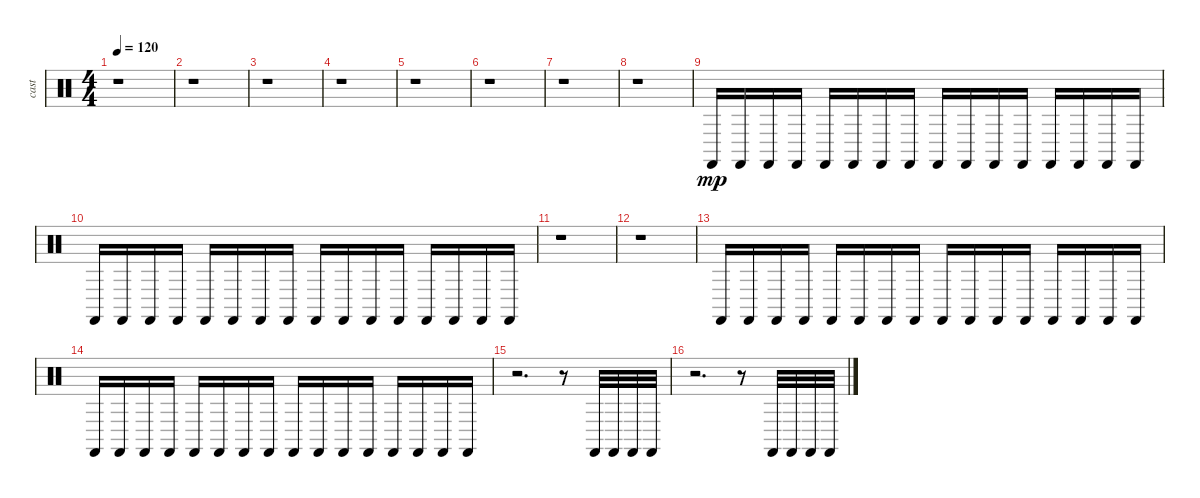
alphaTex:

\track ("cast" "cast") {instrument percussion}
\staff {score}
\articulation defaults
\ts (4 4)
\tempo 120
\clef neutral
\ks c
r.1{dy mp} |
r.1 |
r.1 |
r.1 |
r.1 |
r.1 |
r.1 |
r.1 |
"Castanets (hit)".16 "Castanets (hit)".16 "Castanets (hit)".16 "Castanets (hit)".16 "Castanets (hit)".16 "Castanets (hit)".16 "Castanets (hit)".16 "Castanets (hit)".16 "Castanets (hit)".16 "Castanets (hit)".16 "Castanets (hit)".16 "Castanets (hit)".16 "Castanets (hit)".16 "Castanets (hit)".16 "Castanets (hit)".16 "Castanets (hit)".16 |
"Castanets (hit)".16 "Castanets (hit)".16 "Castanets (hit)".16 "Castanets (hit)".16 "Castanets (hit)".16 "Castanets (hit)".16 "Castanets (hit)".16 "Castanets (hit)".16 "Castanets (hit)".16 "Castanets (hit)".16 "Castanets (hit)".16 "Castanets (hit)".16 "Castanets (hit)".16 "Castanets (hit)".16 "Castanets (hit)".16 "Castanets (hit)".16 |
r.1 |
r.1 |
"Castanets (hit)".16 "Castanets (hit)".16 "Castanets (hit)".16 "Castanets (hit)".16 "Castanets (hit)".16 "Castanets (hit)".16 "Castanets (hit)".16 "Castanets (hit)".16 "Castanets (hit)".16 "Castanets (hit)".16 "Castanets (hit)".16 "Castanets (hit)".16 "Castanets (hit)".16 "Castanets (hit)".16 "Castanets (hit)".16 "Castanets (hit)".16 |
"Castanets (hit)".16 "Castanets (hit)".16 "Castanets (hit)".16 "Castanets (hit)".16 "Castanets (hit)".16 "Castanets (hit)".16 "Castanets (hit)".16 "Castanets (hit)".16 "Castanets (hit)".16 "Castanets (hit)".16 "Castanets (hit)".16 "Castanets (hit)".16 "Castanets (hit)".16 "Castanets (hit)".16 "Castanets (hit)".16 "Castanets (hit)".16 |
r.2{d} r.8 "Castanets (hit)".32 "Castanets (hit)".32 "Castanets (hit)".32 "Castanets (hit)".32 |
r.2{d} r.8 "Castanets (hit)".32 "Castanets (hit)".32 "Castanets (hit)".32 "Castanets (hit)".32
